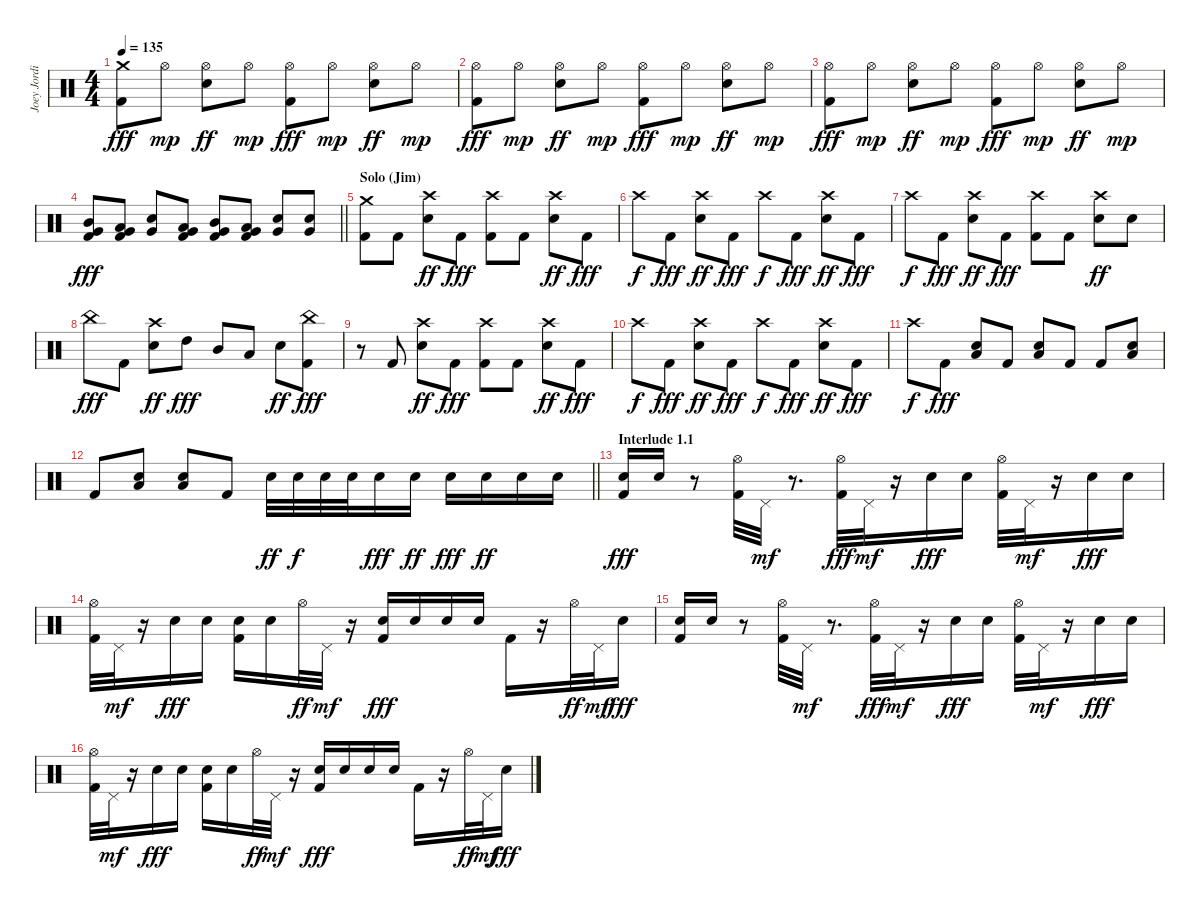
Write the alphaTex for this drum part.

\track ("Joey Jordison" "Joey Jordi") {instrument percussion}
\staff {score}
\articulation defaults
\ts (4 4)
\tempo 135
\clef neutral
\ks c
("Crash medium (hit)" "Kick (hit) 2").8{dy fff} "Hi-Hat (open)".8{dy mp} ("Hi-Hat (open)" "Electric Snare (hit)").8{dy ff} "Hi-Hat (open)".8{dy mp} ("Hi-Hat (open)" "Kick (hit) 2").8{dy fff} "Hi-Hat (open)".8{dy mp} ("Hi-Hat (open)" "Electric Snare (hit)").8{dy ff} "Hi-Hat (open)".8{dy mp} |
("Hi-Hat (open)" "Kick (hit) 2").8{dy fff} "Hi-Hat (open)".8{dy mp} ("Hi-Hat (open)" "Electric Snare (hit)").8{dy ff} "Hi-Hat (open)".8{dy mp} ("Hi-Hat (open)" "Kick (hit) 2").8{dy fff} "Hi-Hat (open)".8{dy mp} ("Hi-Hat (open)" "Electric Snare (hit)").8{dy ff} "Hi-Hat (open)".8{dy mp} |
("Hi-Hat (open)" "Kick (hit) 2").8{dy fff} "Hi-Hat (open)".8{dy mp} ("Hi-Hat (open)" "Electric Snare (hit)").8{dy ff} "Hi-Hat (open)".8{dy mp} ("Hi-Hat (open)" "Kick (hit) 2").8{dy fff} "Hi-Hat (open)".8{dy mp} ("Hi-Hat (open)" "Electric Snare (hit)").8{dy ff} "Hi-Hat (open)".8{dy mp} |
\barLineRight lightlight
("Mid Tom (hit)" "Very Low Tom (hit)" "Kick (hit) 2").8{dy fff} ("Low Tom (hit)" "Very Low Tom (hit)" "Kick (hit) 2").8 ("Electric Snare (hit)" "Very Low Tom (hit)").8 ("Low Tom (hit)" "Very Low Tom (hit)" "Kick (hit) 2").8 ("Mid Tom (hit)" "Very Low Tom (hit)" "Kick (hit) 2").8 ("Low Tom (hit)" "Very Low Tom (hit)" "Kick (hit) 2").8 ("Electric Snare (hit)" "Very Low Tom (hit)").8 ("Electric Snare (hit)" "Very Low Tom (hit)").8 |
\section ("" "Solo (Jim)")
("Crash medium (hit)" "Kick (hit) 2").8 "Kick (hit) 2".8 ("Crash high (hit)" "Electric Snare (hit)").8{dy ff} "Kick (hit) 2".8{dy fff} ("Crash high (hit)" "Kick (hit) 2").8 "Kick (hit) 2".8 ("Crash high (hit)" "Electric Snare (hit)").8{dy ff} "Kick (hit) 2".8{dy fff} |
"Crash high (hit)".8{dy f} "Kick (hit) 2".8{dy fff} ("Crash high (hit)" "Electric Snare (hit)").8{dy ff} "Kick (hit) 2".8{dy fff} "Crash high (hit)".8{dy f} "Kick (hit) 2".8{dy fff} ("Crash high (hit)" "Electric Snare (hit)").8{dy ff} "Kick (hit) 2".8{dy fff} |
"Crash high (hit)".8{dy f} "Kick (hit) 2".8{dy fff} ("Crash high (hit)" "Electric Snare (hit)").8{dy ff} "Kick (hit) 2".8{dy fff} ("Crash high (hit)" "Kick (hit) 2").8 "Kick (hit) 2".8 ("Crash high (hit)" "Electric Snare (hit)").8{dy ff} "Electric Snare (hit)".8 |
"China (hit)".8{dy fff} "Kick (hit) 2".8 ("Crash high (hit)" "Electric Snare (hit)").8{dy ff} "High Tom (hit)".8{dy fff} "Mid Tom (hit)".8 "Low Tom (hit)".8 "Electric Snare (hit)".8{dy ff} ("China (hit)" "Kick (hit) 2").8{dy fff} |
r.8 "Kick (hit) 2".8 ("Crash high (hit)" "Electric Snare (hit)").8{dy ff} "Kick (hit) 2".8{dy fff} ("Crash high (hit)" "Kick (hit) 2").8 "Kick (hit) 2".8 ("Crash high (hit)" "Electric Snare (hit)").8{dy ff} "Kick (hit) 2".8{dy fff} |
"Crash high (hit)".8{dy f} "Kick (hit) 2".8{dy fff} ("Crash high (hit)" "Electric Snare (hit)").8{dy ff} "Kick (hit) 2".8{dy fff} "Crash high (hit)".8{dy f} "Kick (hit) 2".8{dy fff} ("Crash high (hit)" "Electric Snare (hit)").8{dy ff} "Kick (hit) 2".8{dy fff} |
"Crash high (hit)".8{dy f} "Kick (hit) 2".8{dy fff} ("Electric Snare (hit)" "Low Floor Tom (hit)").8 "Kick (hit) 2".8 ("Electric Snare (hit)" "Low Floor Tom (hit)").8 "Kick (hit) 2".8 "Kick (hit) 2".8 ("Electric Snare (hit)" "Low Floor Tom (hit)").8 |
\barLineRight lightlight "Kick (hit) 2".8
("Electric Snare (hit)" "Low Floor Tom (hit)").8 ("Electric Snare (hit)" "Low Floor Tom (hit)").8 "Kick (hit) 2".8 "Electric Snare (hit)".32{dy ff} "Electric Snare (hit)".32{dy f} "Electric Snare (hit)".32 "Electric Snare (hit)".32 "Electric Snare (hit)".16{dy fff} "Electric Snare (hit)".16{dy ff} "Electric Snare (hit)".16{dy fff} "Electric Snare (hit)".16{dy ff} "Electric Snare (hit)".16 "Electric Snare (hit)".16 |
\section ("" "Interlude 1.1")
("Electric Snare (hit)" "Kick (hit) 2").16{dy fff} "Electric Snare (hit)".16 r.8 ("Hi-Hat (open)" "Kick (hit) 2").32 "Pedal Hi-Hat (hit)".32{dy mf} r.8{d} ("Hi-Hat (open)" "Kick (hit) 2").32{dy fff} "Pedal Hi-Hat (hit)".32{dy mf} r.16 "Electric Snare (hit)".16{dy fff} "Electric Snare (hit)".16 ("Hi-Hat (open)" "Kick (hit) 2").32 "Pedal Hi-Hat (hit)".32{dy mf} r.16 "Electric Snare (hit)".16{dy fff} "Electric Snare (hit)".16 |
("Hi-Hat (open)" "Kick (hit) 2").32 "Pedal Hi-Hat (hit)".32{dy mf} r.16 "Electric Snare (hit)".16{dy fff} "Electric Snare (hit)".16 ("Electric Snare (hit)" "Kick (hit) 2").16 "Electric Snare (hit)".16 "Hi-Hat (open)".32{dy ff} "Pedal Hi-Hat (hit)".32{dy mf} r.16 ("Electric Snare (hit)" "Kick (hit) 2").16{dy fff} "Electric Snare (hit)".16 "Electric Snare (hit)".16 "Electric Snare (hit)".16 "Kick (hit) 2".16 r.16 "Hi-Hat (open)".32{dy ff} "Pedal Hi-Hat (hit)".32{dy mf} "Electric Snare (hit)".16{dy fff} |
("Electric Snare (hit)" "Kick (hit) 2").16 "Electric Snare (hit)".16 r.8 ("Hi-Hat (open)" "Kick (hit) 2").32 "Pedal Hi-Hat (hit)".32{dy mf} r.8{d} ("Hi-Hat (open)" "Kick (hit) 2").32{dy fff} "Pedal Hi-Hat (hit)".32{dy mf} r.16 "Electric Snare (hit)".16{dy fff} "Electric Snare (hit)".16 ("Hi-Hat (open)" "Kick (hit) 2").32 "Pedal Hi-Hat (hit)".32{dy mf} r.16 "Electric Snare (hit)".16{dy fff} "Electric Snare (hit)".16 |
("Hi-Hat (open)" "Kick (hit) 2").32 "Pedal Hi-Hat (hit)".32{dy mf} r.16 "Electric Snare (hit)".16{dy fff} "Electric Snare (hit)".16 ("Electric Snare (hit)" "Kick (hit) 2").16 "Electric Snare (hit)".16 "Hi-Hat (open)".32{dy ff} "Pedal Hi-Hat (hit)".32{dy mf} r.16 ("Electric Snare (hit)" "Kick (hit) 2").16{dy fff} "Electric Snare (hit)".16 "Electric Snare (hit)".16 "Electric Snare (hit)".16 "Kick (hit) 2".16 r.16 "Hi-Hat (open)".32{dy ff} "Pedal Hi-Hat (hit)".32{dy mf} "Electric Snare (hit)".16{dy fff}
